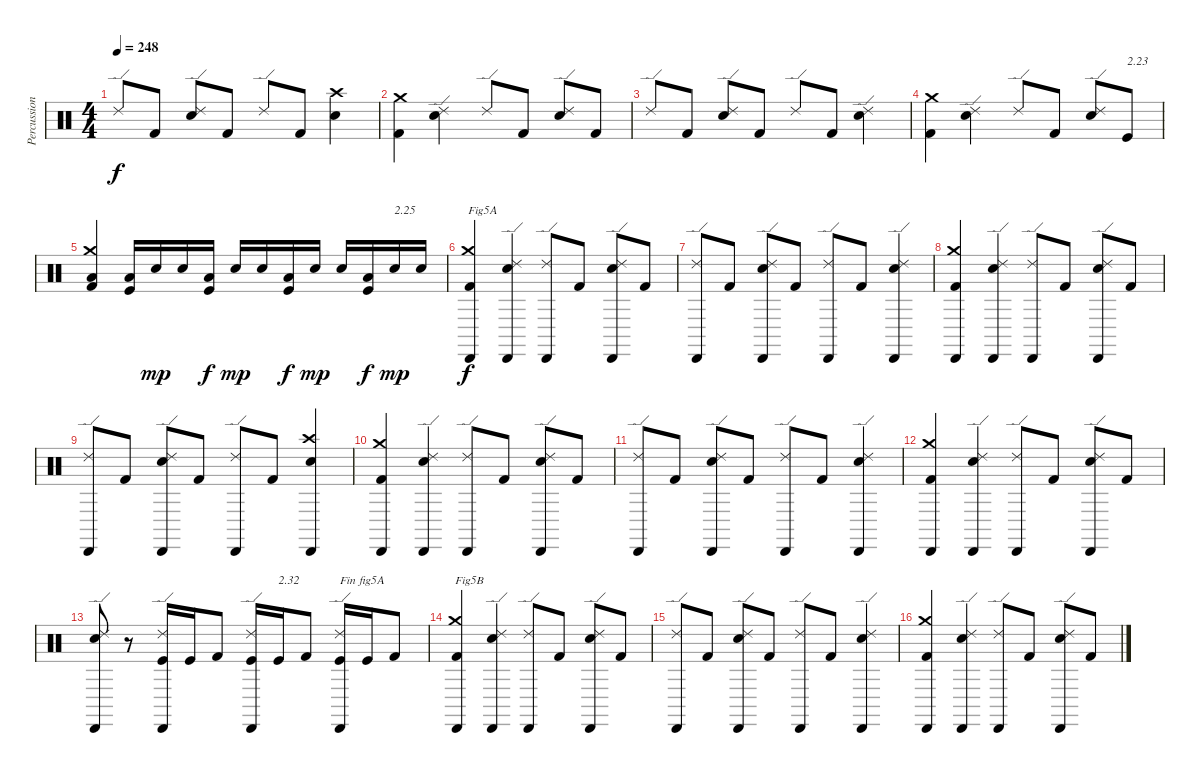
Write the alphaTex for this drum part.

\track ("Percussions" "Percussion") {instrument percussion}
\staff {score}
\articulation defaults
\ts (4 4)
\tempo 248
\clef neutral
\ks c "Ride (edge) 2".8{dy f} "Kick (hit) 2".8
("Electric Snare (hit)" "Ride (edge) 2").8 "Kick (hit) 2".8 "Ride (edge) 2".8 "Kick (hit) 2".8 ("Electric Snare (hit)" "Crash high (hit)").4 |
("Kick (hit) 2" "Crash medium (hit)").4 ("Electric Snare (hit)" "Ride (edge) 2").4 "Ride (edge) 2".8 "Kick (hit) 2".8 ("Electric Snare (hit)" "Ride (edge) 2").8 "Kick (hit) 2".8 |
"Ride (edge) 2".8 "Kick (hit) 2".8 ("Electric Snare (hit)" "Ride (edge) 2").8 "Kick (hit) 2".8 "Ride (edge) 2".8 "Kick (hit) 2".8 ("Electric Snare (hit)" "Ride (edge) 2").4 |
("Kick (hit) 2" "Crash medium (hit)").4 ("Electric Snare (hit)" "Ride (edge) 2").4 "Ride (edge) 2".8 "Kick (hit) 2".8 ("Electric Snare (hit)" "Ride (edge) 2").8 "Kick (hit)".8{txt "2.23"} |
("Kick (hit) 2" "Low Floor Tom (hit)" "Crash medium (hit)").4 ("Kick (hit)" "Low Floor Tom (hit)").16 "Electric Snare (hit)".16{dy mp} "Electric Snare (hit)".16 ("Kick (hit)" "Low Floor Tom (hit)").16{dy f} "Electric Snare (hit)".16{dy mp} "Electric Snare (hit)".16 ("Kick (hit)" "Low Floor Tom (hit)").16{dy f} "Electric Snare (hit)".16{dy mp} "Electric Snare (hit)".16 ("Kick (hit)" "Low Floor Tom (hit)").16{dy f} "Electric Snare (hit)".16{txt "2.25" dy mp} "Electric Snare (hit)".16 |
("Kick (hit) 2" "Crash medium (hit)" "Cabasa (hit)").4{txt "Fig5A" dy f} ("Electric Snare (hit)" "Ride (edge) 2" "Cabasa (hit)").4 ("Ride (edge) 2" "Cabasa (hit)").8 "Kick (hit) 2".8 ("Electric Snare (hit)" "Ride (edge) 2" "Cabasa (hit)").8 "Kick (hit) 2".8 |
("Ride (edge) 2" "Cabasa (hit)").8 "Kick (hit) 2".8 ("Electric Snare (hit)" "Ride (edge) 2" "Cabasa (hit)").8 "Kick (hit) 2".8 ("Ride (edge) 2" "Cabasa (hit)").8 "Kick (hit) 2".8 ("Electric Snare (hit)" "Ride (edge) 2" "Cabasa (hit)").4 |
("Kick (hit) 2" "Crash medium (hit)" "Cabasa (hit)").4 ("Electric Snare (hit)" "Ride (edge) 2" "Cabasa (hit)").4 ("Ride (edge) 2" "Cabasa (hit)").8 "Kick (hit) 2".8 ("Electric Snare (hit)" "Ride (edge) 2" "Cabasa (hit)").8 "Kick (hit) 2".8 |
("Ride (edge) 2" "Cabasa (hit)").8 "Kick (hit) 2".8 ("Electric Snare (hit)" "Ride (edge) 2" "Cabasa (hit)").8 "Kick (hit) 2".8 ("Ride (edge) 2" "Cabasa (hit)").8 "Kick (hit) 2".8 ("Electric Snare (hit)" "Crash high (hit)" "Cabasa (hit)").4 |
("Kick (hit) 2" "Crash medium (hit)" "Cabasa (hit)").4 ("Electric Snare (hit)" "Ride (edge) 2" "Cabasa (hit)").4 ("Ride (edge) 2" "Cabasa (hit)").8 "Kick (hit) 2".8 ("Electric Snare (hit)" "Ride (edge) 2" "Cabasa (hit)").8 "Kick (hit) 2".8 |
("Ride (edge) 2" "Cabasa (hit)").8 "Kick (hit) 2".8 ("Electric Snare (hit)" "Ride (edge) 2" "Cabasa (hit)").8 "Kick (hit) 2".8 ("Ride (edge) 2" "Cabasa (hit)").8 "Kick (hit) 2".8 ("Electric Snare (hit)" "Ride (edge) 2" "Cabasa (hit)").4 |
("Kick (hit) 2" "Crash medium (hit)" "Cabasa (hit)").4 ("Electric Snare (hit)" "Ride (edge) 2" "Cabasa (hit)").4 ("Ride (edge) 2" "Cabasa (hit)").8 "Kick (hit) 2".8 ("Electric Snare (hit)" "Ride (edge) 2" "Cabasa (hit)").8 "Kick (hit) 2".8 |
("Electric Snare (hit)" "Ride (edge) 2" "Cabasa (hit)").8 r.8 ("Kick (hit)" "Ride (edge) 2" "Cabasa (hit)").16 "Kick (hit)".16 "Kick (hit) 2".8 ("Kick (hit)" "Ride (edge) 2" "Cabasa (hit)").16 "Kick (hit)".16{txt "2.32"} "Kick (hit) 2".8 ("Kick (hit)" "Ride (edge) 2" "Cabasa (hit)").16{txt "Fin fig5A"} "Kick (hit)".16 "Kick (hit) 2".8 |
("Kick (hit) 2" "Crash medium (hit)" "Cabasa (hit)").4{txt "Fig5B"} ("Electric Snare (hit)" "Ride (edge) 2" "Cabasa (hit)").4 ("Ride (edge) 2" "Cabasa (hit)").8 "Kick (hit) 2".8 ("Electric Snare (hit)" "Ride (edge) 2" "Cabasa (hit)").8 "Kick (hit) 2".8 |
("Ride (edge) 2" "Cabasa (hit)").8 "Kick (hit) 2".8 ("Electric Snare (hit)" "Ride (edge) 2" "Cabasa (hit)").8 "Kick (hit) 2".8 ("Ride (edge) 2" "Cabasa (hit)").8 "Kick (hit) 2".8 ("Electric Snare (hit)" "Ride (edge) 2" "Cabasa (hit)").4 |
("Kick (hit) 2" "Crash medium (hit)" "Cabasa (hit)").4 ("Electric Snare (hit)" "Ride (edge) 2" "Cabasa (hit)").4 ("Ride (edge) 2" "Cabasa (hit)").8 "Kick (hit) 2".8 ("Electric Snare (hit)" "Ride (edge) 2" "Cabasa (hit)").8 "Kick (hit) 2".8
